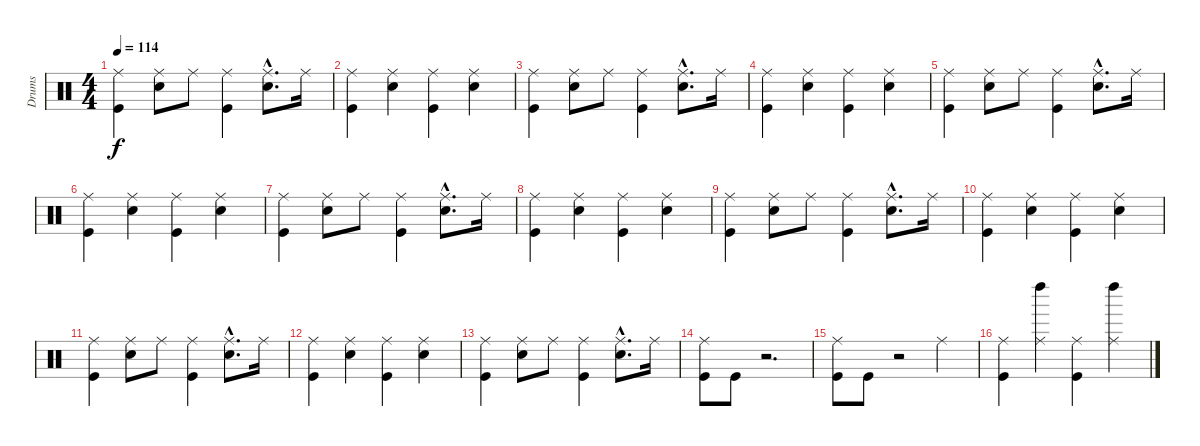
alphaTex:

\track ("Drums" "Drums") {instrument percussion}
\staff {score}
\articulation defaults
\ts (4 4)
\tempo 114
\clef neutral
\ks c
("Ride (middle)" "Kick (hit)").4{dy f} ("Ride (middle)" "Electric Snare (hit)").8 "Ride (middle)".8 ("Ride (middle)" "Kick (hit)").4 ("Ride (middle)"{hac} "Electric Snare (hit)"{hac}).8{d} "Ride (middle)".16 |
("Ride (middle)" "Kick (hit)").4 ("Ride (middle)" "Electric Snare (hit)").4 ("Ride (middle)" "Kick (hit)").4 ("Ride (middle)" "Electric Snare (hit)").4 |
("Ride (middle)" "Kick (hit)").4 ("Ride (middle)" "Electric Snare (hit)").8 "Ride (middle)".8 ("Ride (middle)" "Kick (hit)").4 ("Ride (middle)"{hac} "Electric Snare (hit)"{hac}).8{d} "Ride (middle)".16 |
("Ride (middle)" "Kick (hit)").4 ("Ride (middle)" "Electric Snare (hit)").4 ("Ride (middle)" "Kick (hit)").4 ("Ride (middle)" "Electric Snare (hit)").4 |
("Ride (middle)" "Kick (hit)").4 ("Ride (middle)" "Electric Snare (hit)").8 "Ride (middle)".8 ("Ride (middle)" "Kick (hit)").4 ("Ride (middle)"{hac} "Electric Snare (hit)"{hac}).8{d} "Ride (middle)".16 |
("Ride (middle)" "Kick (hit)").4 ("Ride (middle)" "Electric Snare (hit)").4 ("Ride (middle)" "Kick (hit)").4 ("Ride (middle)" "Electric Snare (hit)").4 |
("Ride (middle)" "Kick (hit)").4 ("Ride (middle)" "Electric Snare (hit)").8 "Ride (middle)".8 ("Ride (middle)" "Kick (hit)").4 ("Ride (middle)"{hac} "Electric Snare (hit)"{hac}).8{d} "Ride (middle)".16 |
("Ride (middle)" "Kick (hit)").4 ("Ride (middle)" "Electric Snare (hit)").4 ("Ride (middle)" "Kick (hit)").4 ("Ride (middle)" "Electric Snare (hit)").4 |
("Ride (middle)" "Kick (hit)").4 ("Ride (middle)" "Electric Snare (hit)").8 "Ride (middle)".8 ("Ride (middle)" "Kick (hit)").4 ("Ride (middle)"{hac} "Electric Snare (hit)"{hac}).8{d} "Ride (middle)".16 |
("Ride (middle)" "Kick (hit)").4 ("Ride (middle)" "Electric Snare (hit)").4 ("Ride (middle)" "Kick (hit)").4 ("Ride (middle)" "Electric Snare (hit)").4 |
("Ride (middle)" "Kick (hit)").4 ("Ride (middle)" "Electric Snare (hit)").8 "Ride (middle)".8 ("Ride (middle)" "Kick (hit)").4 ("Ride (middle)"{hac} "Electric Snare (hit)"{hac}).8{d} "Ride (middle)".16 |
("Ride (middle)" "Kick (hit)").4 ("Ride (middle)" "Electric Snare (hit)").4 ("Ride (middle)" "Kick (hit)").4 ("Ride (middle)" "Electric Snare (hit)").4 |
("Ride (middle)" "Kick (hit)").4 ("Ride (middle)" "Electric Snare (hit)").8 "Ride (middle)".8 ("Ride (middle)" "Kick (hit)").4 ("Ride (middle)"{hac} "Electric Snare (hit)"{hac}).8{d} "Ride (middle)".16 |
("Ride (middle)" "Kick (hit)").8 "Kick (hit)".8 r.2{d} |
("Ride (middle)" "Kick (hit)").8 "Kick (hit)".8 r.2 "Ride (middle)".4 |
("Ride (middle)" "Kick (hit)").4 ("Ride (middle)" "Left Maraca (hit)").4 ("Ride (middle)" "Kick (hit)").4 ("Ride (middle)" "Left Maraca (hit)").4
